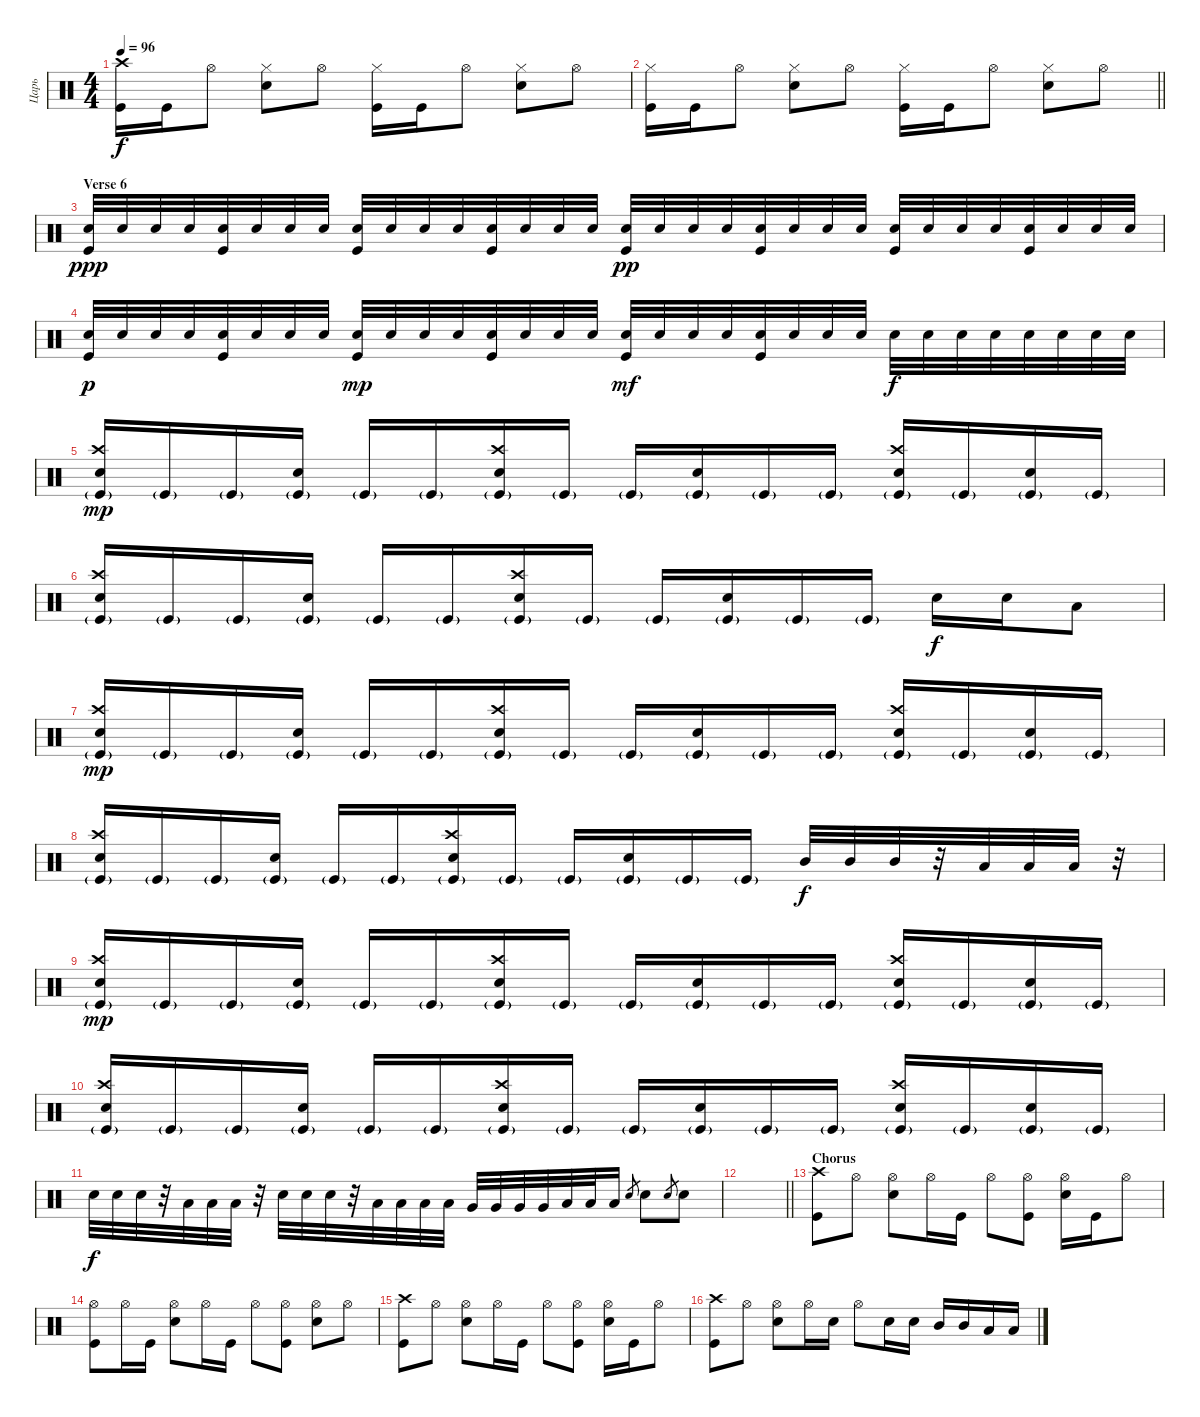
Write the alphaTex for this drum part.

\track ("Царь" "Царь") {instrument percussion}
\staff {score}
\articulation defaults
\ts (4 4)
\tempo 96
\clef neutral
\ks c
("Kick (hit)" "Crash high (hit)").16{dy f} "Kick (hit)".16 "Hi-Hat (open)".8 ("Electric Snare (hit)" "Hi-Hat (closed)").8 "Hi-Hat (open)".8 ("Kick (hit)" "Hi-Hat (closed)").16 "Kick (hit)".16 "Hi-Hat (open)".8 ("Electric Snare (hit)" "Hi-Hat (closed)").8 "Hi-Hat (open)".8 |
\barLineRight lightlight
("Kick (hit)" "Hi-Hat (closed)").16 "Kick (hit)".16 "Hi-Hat (open)".8 ("Electric Snare (hit)" "Hi-Hat (closed)").8 "Hi-Hat (open)".8 ("Kick (hit)" "Hi-Hat (closed)").16 "Kick (hit)".16 "Hi-Hat (open)".8 ("Electric Snare (hit)" "Hi-Hat (closed)").8 "Hi-Hat (open)".8 |
\section ("" "Verse 6")
("Electric Snare (hit)" "Kick (hit)").32{dy ppp} "Electric Snare (hit)".32 "Electric Snare (hit)".32 "Electric Snare (hit)".32 ("Electric Snare (hit)" "Kick (hit)").32 "Electric Snare (hit)".32 "Electric Snare (hit)".32 "Electric Snare (hit)".32 ("Electric Snare (hit)" "Kick (hit)").32 "Electric Snare (hit)".32 "Electric Snare (hit)".32 "Electric Snare (hit)".32 ("Electric Snare (hit)" "Kick (hit)").32 "Electric Snare (hit)".32 "Electric Snare (hit)".32 "Electric Snare (hit)".32 ("Electric Snare (hit)" "Kick (hit)").32{dy pp} "Electric Snare (hit)".32 "Electric Snare (hit)".32 "Electric Snare (hit)".32 ("Electric Snare (hit)" "Kick (hit)").32 "Electric Snare (hit)".32 "Electric Snare (hit)".32 "Electric Snare (hit)".32 ("Electric Snare (hit)" "Kick (hit)").32 "Electric Snare (hit)".32 "Electric Snare (hit)".32 "Electric Snare (hit)".32 ("Electric Snare (hit)" "Kick (hit)").32 "Electric Snare (hit)".32 "Electric Snare (hit)".32 "Electric Snare (hit)".32 |
("Electric Snare (hit)" "Kick (hit)").32{dy p} "Electric Snare (hit)".32 "Electric Snare (hit)".32 "Electric Snare (hit)".32 ("Electric Snare (hit)" "Kick (hit)").32 "Electric Snare (hit)".32 "Electric Snare (hit)".32 "Electric Snare (hit)".32 ("Electric Snare (hit)" "Kick (hit)").32{dy mp} "Electric Snare (hit)".32 "Electric Snare (hit)".32 "Electric Snare (hit)".32 ("Electric Snare (hit)" "Kick (hit)").32 "Electric Snare (hit)".32 "Electric Snare (hit)".32 "Electric Snare (hit)".32 ("Electric Snare (hit)" "Kick (hit)").32{dy mf} "Electric Snare (hit)".32 "Electric Snare (hit)".32 "Electric Snare (hit)".32 ("Electric Snare (hit)" "Kick (hit)").32 "Electric Snare (hit)".32 "Electric Snare (hit)".32 "Electric Snare (hit)".32 "Electric Snare (hit)".32{dy f} "Electric Snare (hit)".32 "Electric Snare (hit)".32 "Electric Snare (hit)".32 "Electric Snare (hit)".32 "Electric Snare (hit)".32 "Electric Snare (hit)".32 "Electric Snare (hit)".32 |
("Electric Snare (hit)" "Kick (hit)"{g} "Crash high (hit)").16{dy mp} "Kick (hit)"{g}.16 "Kick (hit)"{g}.16 ("Electric Snare (hit)" "Kick (hit)"{g}).16 "Kick (hit)"{g}.16 "Kick (hit)"{g}.16 ("Electric Snare (hit)" "Kick (hit)"{g} "Crash high (hit)").16 "Kick (hit)"{g}.16 "Kick (hit)"{g}.16 ("Electric Snare (hit)" "Kick (hit)"{g}).16 "Kick (hit)"{g}.16 "Kick (hit)"{g}.16 ("Electric Snare (hit)" "Kick (hit)"{g} "Crash high (hit)").16 "Kick (hit)"{g}.16 ("Electric Snare (hit)" "Kick (hit)"{g}).16 "Kick (hit)"{g}.16 |
("Electric Snare (hit)" "Kick (hit)"{g} "Crash high (hit)").16 "Kick (hit)"{g}.16 "Kick (hit)"{g}.16 ("Electric Snare (hit)" "Kick (hit)"{g}).16 "Kick (hit)"{g}.16 "Kick (hit)"{g}.16 ("Electric Snare (hit)" "Kick (hit)"{g} "Crash high (hit)").16 "Kick (hit)"{g}.16 "Kick (hit)"{g}.16 ("Electric Snare (hit)" "Kick (hit)"{g}).16 "Kick (hit)"{g}.16 "Kick (hit)"{g}.16 "Electric Snare (hit)".16{dy f} "Electric Snare (hit)".16 "Low Tom (hit)".8 |
("Electric Snare (hit)" "Kick (hit)"{g} "Crash high (hit)").16{dy mp} "Kick (hit)"{g}.16 "Kick (hit)"{g}.16 ("Electric Snare (hit)" "Kick (hit)"{g}).16 "Kick (hit)"{g}.16 "Kick (hit)"{g}.16 ("Electric Snare (hit)" "Kick (hit)"{g} "Crash high (hit)").16 "Kick (hit)"{g}.16 "Kick (hit)"{g}.16 ("Electric Snare (hit)" "Kick (hit)"{g}).16 "Kick (hit)"{g}.16 "Kick (hit)"{g}.16 ("Electric Snare (hit)" "Kick (hit)"{g} "Crash high (hit)").16 "Kick (hit)"{g}.16 ("Electric Snare (hit)" "Kick (hit)"{g}).16 "Kick (hit)"{g}.16 |
("Electric Snare (hit)" "Kick (hit)"{g} "Crash high (hit)").16 "Kick (hit)"{g}.16 "Kick (hit)"{g}.16 ("Electric Snare (hit)" "Kick (hit)"{g}).16 "Kick (hit)"{g}.16 "Kick (hit)"{g}.16 ("Electric Snare (hit)" "Kick (hit)"{g} "Crash high (hit)").16 "Kick (hit)"{g}.16 "Kick (hit)"{g}.16 ("Electric Snare (hit)" "Kick (hit)"{g}).16 "Kick (hit)"{g}.16 "Kick (hit)"{g}.16 "Mid Tom (hit)".32{dy f} "Mid Tom (hit)".32 "Mid Tom (hit)".32 r.32 "Low Tom (hit)".32 "Low Tom (hit)".32 "Low Tom (hit)".32 r.32 |
("Electric Snare (hit)" "Kick (hit)"{g} "Crash high (hit)").16{dy mp} "Kick (hit)"{g}.16 "Kick (hit)"{g}.16 ("Electric Snare (hit)" "Kick (hit)"{g}).16 "Kick (hit)"{g}.16 "Kick (hit)"{g}.16 ("Electric Snare (hit)" "Kick (hit)"{g} "Crash high (hit)").16 "Kick (hit)"{g}.16 "Kick (hit)"{g}.16 ("Electric Snare (hit)" "Kick (hit)"{g}).16 "Kick (hit)"{g}.16 "Kick (hit)"{g}.16 ("Electric Snare (hit)" "Kick (hit)"{g} "Crash high (hit)").16 "Kick (hit)"{g}.16 ("Electric Snare (hit)" "Kick (hit)"{g}).16 "Kick (hit)"{g}.16 |
("Electric Snare (hit)" "Kick (hit)"{g} "Crash high (hit)").16 "Kick (hit)"{g}.16 "Kick (hit)"{g}.16 ("Electric Snare (hit)" "Kick (hit)"{g}).16 "Kick (hit)"{g}.16 "Kick (hit)"{g}.16 ("Electric Snare (hit)" "Kick (hit)"{g} "Crash high (hit)").16 "Kick (hit)"{g}.16 "Kick (hit)"{g}.16 ("Electric Snare (hit)" "Kick (hit)"{g}).16 "Kick (hit)"{g}.16 "Kick (hit)"{g}.16 ("Electric Snare (hit)" "Kick (hit)"{g} "Crash high (hit)").16 "Kick (hit)"{g}.16 ("Electric Snare (hit)" "Kick (hit)"{g}).16 "Kick (hit)"{g}.16 |
"Electric Snare (hit)".32{dy f} "Electric Snare (hit)".32 "Electric Snare (hit)".32 r.32 "Low Tom (hit)".32 "Low Tom (hit)".32 "Low Tom (hit)".32 r.32 "Electric Snare (hit)".32 "Electric Snare (hit)".32 "Electric Snare (hit)".32 r.32 "Low Tom (hit)".32 "Low Tom (hit)".32 "Low Tom (hit)".32 "Low Tom (hit)".32 "Very Low Tom (hit)".32 "Very Low Tom (hit)".32 "Very Low Tom (hit)".32 "Very Low Tom (hit)".32 "Low Floor Tom (hit)".32 "Low Floor Tom (hit)".32 "Low Floor Tom (hit)".16 "Electric Snare (hit)".8{gr} "Electric Snare (hit)".8 "Electric Snare (hit)".8{gr} "Electric Snare (hit)".8 |
\barLineRight lightlight
|
\section ("" "Chorus")
("Crash high (hit)" "Kick (hit)").8 "Hi-Hat (open)".8 ("Electric Snare (hit)" "Hi-Hat (open)").8 "Hi-Hat (open)".16 "Kick (hit)".16 "Hi-Hat (open)".8 ("Kick (hit)" "Hi-Hat (open)").8 ("Electric Snare (hit)" "Hi-Hat (open)").16 "Kick (hit)".16 "Hi-Hat (open)".8 |
("Kick (hit)" "Hi-Hat (open)").8 "Hi-Hat (open)".16 "Kick (hit)".16 ("Electric Snare (hit)" "Hi-Hat (open)").8 "Hi-Hat (open)".16 "Kick (hit)".16 "Hi-Hat (open)".8 ("Kick (hit)" "Hi-Hat (open)").8 ("Electric Snare (hit)" "Hi-Hat (open)").8 "Hi-Hat (open)".8 |
("Crash high (hit)" "Kick (hit)").8 "Hi-Hat (open)".8 ("Electric Snare (hit)" "Hi-Hat (open)").8 "Hi-Hat (open)".16 "Kick (hit)".16 "Hi-Hat (open)".8 ("Kick (hit)" "Hi-Hat (open)").8 ("Electric Snare (hit)" "Hi-Hat (open)").16 "Kick (hit)".16 "Hi-Hat (open)".8 |
("Crash high (hit)" "Kick (hit)").8 "Hi-Hat (open)".8 ("Electric Snare (hit)" "Hi-Hat (open)").8 "Hi-Hat (open)".16 "Electric Snare (hit)".16 "Hi-Hat (open)".8 "Electric Snare (hit)".16 "Electric Snare (hit)".16 "Mid Tom (hit)".16 "Mid Tom (hit)".16 "Low Tom (hit)".16 "Low Tom (hit)".16
